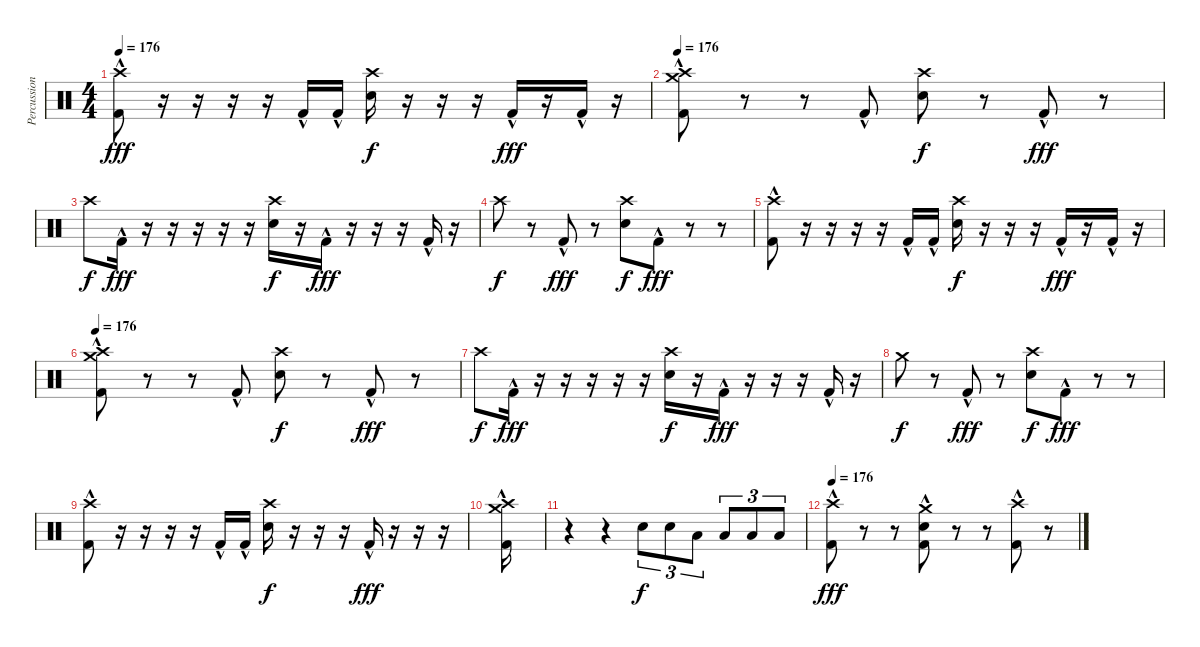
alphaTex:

\track ("Percussion" "Percussion") {instrument percussion}
\staff {score}
\articulation defaults
\ts (4 4)
\tempo 176
\clef neutral
\ks c
("Crash high (hit)" "Kick (hit) 2"{hac}).8{dy fff} r.16 r.16 r.16 r.16 "Kick (hit) 2"{hac}.16 "Kick (hit) 2"{hac}.16 ("Crash high (hit)" "Electric Snare (hit)").16{dy f} r.16 r.16 r.16 "Kick (hit) 2"{hac}.16{dy fff} r.16 "Kick (hit) 2"{hac}.16 r.16 |
\tempo 176
("Crash high (hit)" "Crash medium (hit)" "Kick (hit) 2"{hac}).8 r.8 r.8 "Kick (hit) 2"{hac}.8 ("Crash high (hit)" "Electric Snare (hit)").8{dy f} r.8 "Kick (hit) 2"{hac}.8{dy fff} r.8 |
"Crash high (hit)".8{dy f} "Kick (hit) 2"{hac}.16{dy fff} r.16 r.16 r.16 r.16 r.16 ("Crash high (hit)" "Electric Snare (hit)").16{dy f} r.16 "Kick (hit) 2"{hac}.16{dy fff} r.16 r.16 r.16 "Kick (hit) 2"{hac}.16 r.16 |
"Crash high (hit)".8{dy f} r.8 "Kick (hit) 2"{hac}.8{dy fff} r.8 ("Crash high (hit)" "Electric Snare (hit)").8{dy f} "Kick (hit) 2"{hac}.8{dy fff} r.8 r.8 |
("Crash high (hit)" "Kick (hit) 2"{hac}).8 r.16 r.16 r.16 r.16 "Kick (hit) 2"{hac}.16 "Kick (hit) 2"{hac}.16 ("Crash high (hit)" "Electric Snare (hit)").16{dy f} r.16 r.16 r.16 "Kick (hit) 2"{hac}.16{dy fff} r.16 "Kick (hit) 2"{hac}.16 r.16 |
\tempo 176
("Crash high (hit)" "Crash medium (hit)" "Kick (hit) 2"{hac}).8 r.8 r.8 "Kick (hit) 2"{hac}.8 ("Crash high (hit)" "Electric Snare (hit)").8{dy f} r.8 "Kick (hit) 2"{hac}.8{dy fff} r.8 |
"Crash high (hit)".8{dy f} "Kick (hit) 2"{hac}.16{dy fff} r.16 r.16 r.16 r.16 r.16 ("Crash high (hit)" "Electric Snare (hit)").16{dy f} r.16 "Kick (hit) 2"{hac}.16{dy fff} r.16 r.16 r.16 "Kick (hit) 2"{hac}.16 r.16 |
"Crash medium (hit)".8{dy f} r.8 "Kick (hit) 2"{hac}.8{dy fff} r.8 ("Crash high (hit)" "Electric Snare (hit)").8{dy f} "Kick (hit) 2"{hac}.8{dy fff} r.8 r.8 |
("Crash high (hit)" "Kick (hit) 2"{hac}).8 r.16 r.16 r.16 r.16 "Kick (hit) 2"{hac}.16 "Kick (hit) 2"{hac}.16 ("Crash high (hit)" "Electric Snare (hit)").16{dy f} r.16 r.16 r.16 "Kick (hit) 2"{hac}.16{dy fff} r.16 r.16 r.16 |
("Crash medium (hit)" "Crash high (hit)" "Kick (hit) 2"{hac}).16 |
r.4 r.4 "Electric Snare (hit)".8{tu (3 2) dy f} "Electric Snare (hit)".8{tu (3 2)} "Low Tom (hit)".8{tu (3 2)} "Low Tom (hit)".8{tu (3 2)} "Low Floor Tom (hit)".8{tu (3 2)} "Low Floor Tom (hit)".8{tu (3 2)} |
\tempo 176
("Crash high (hit)" "Kick (hit) 2"{hac}).8{dy fff} r.8 r.8 ("Crash medium (hit)" "Electric Snare (hit)" "Kick (hit) 2"{hac}).8 r.8 r.8 ("Crash high (hit)" "Kick (hit) 2"{hac}).8 r.8
